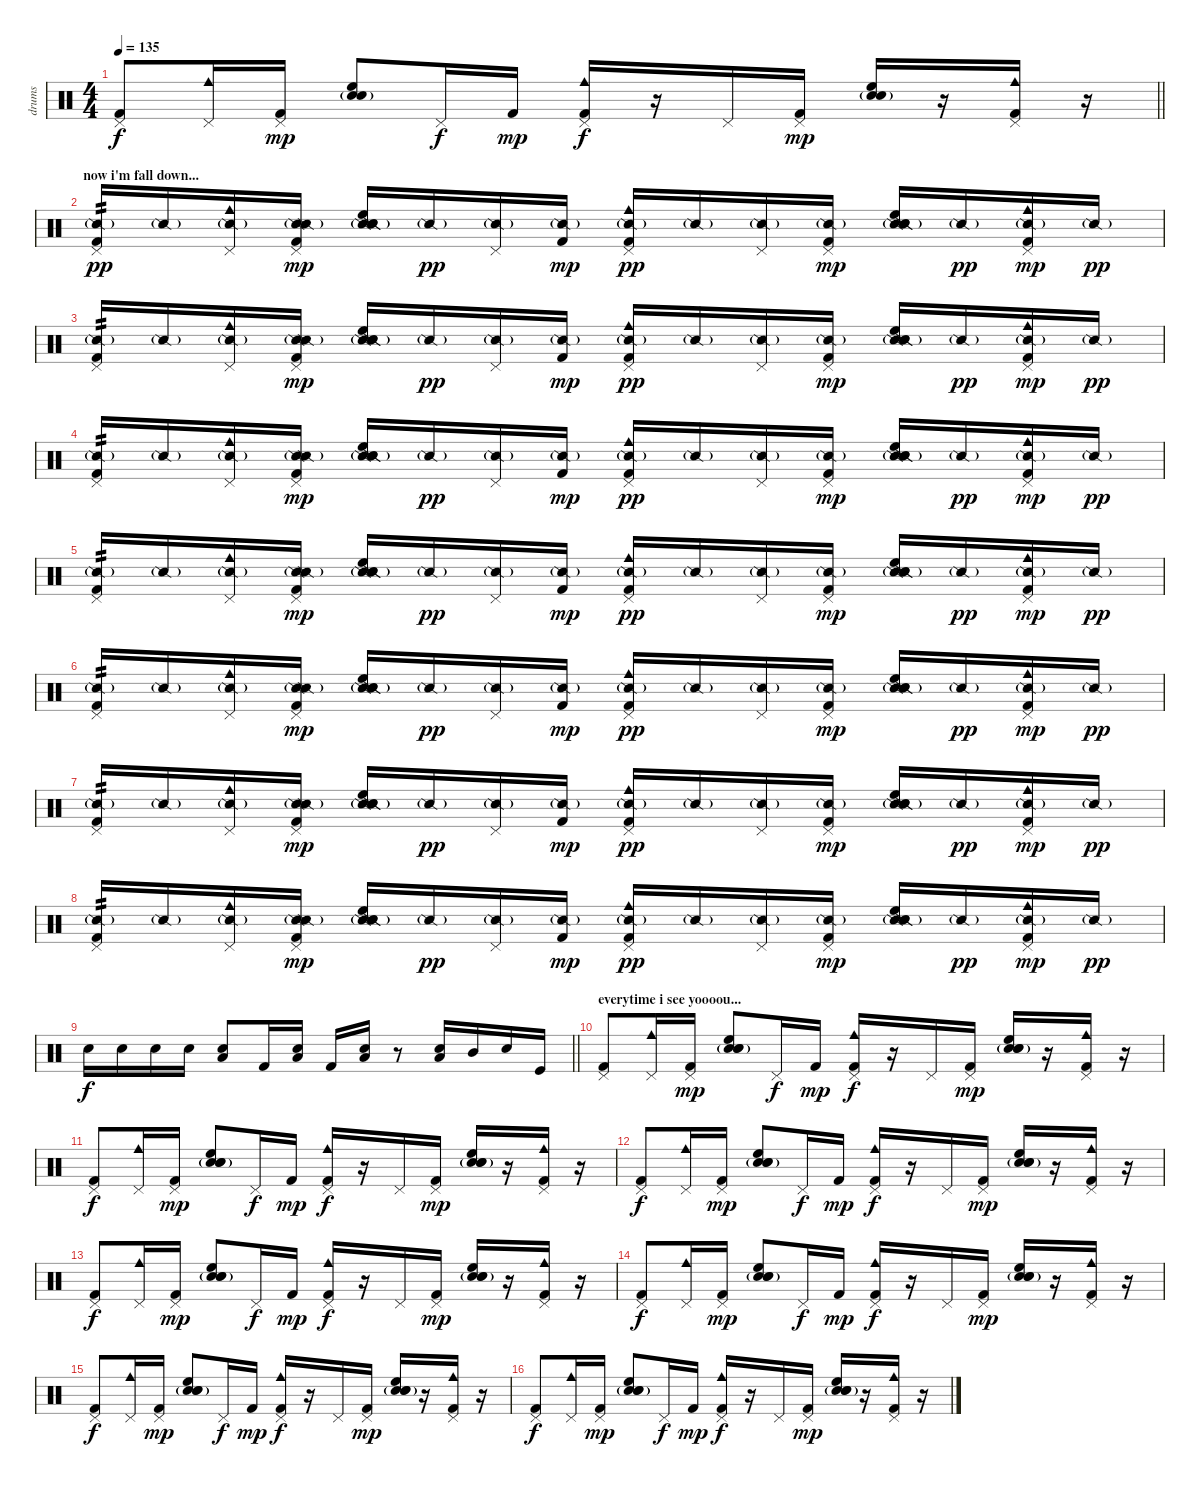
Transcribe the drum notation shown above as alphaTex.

\track ("drums" "drums") {instrument percussion}
\staff {score}
\articulation defaults
\ts (4 4)
\tempo 135
\clef neutral
\barLineRight lightlight
\ks c
("Pedal Hi-Hat (hit)" "Kick (hit) 2").8{dy f} ("Cowbell medium (hit)" "Pedal Hi-Hat (hit)").16 ("Pedal Hi-Hat (hit)" "Kick (hit) 2").16{dy mp} ("Electric Snare (hit)"{g} "Hand Clap (hit)"{g} "High Floor Tom (hit)").8 "Pedal Hi-Hat (hit)".16{dy f} "Kick (hit) 2".16{dy mp} ("Cowbell medium (hit)" "Pedal Hi-Hat (hit)" "Kick (hit) 2").16{dy f} r.16 "Pedal Hi-Hat (hit)".16 ("Pedal Hi-Hat (hit)" "Kick (hit) 2").16{dy mp} ("Electric Snare (hit)"{g} "Hand Clap (hit)"{g} "High Floor Tom (hit)").16 r.16 ("Cowbell medium (hit)" "Pedal Hi-Hat (hit)" "Kick (hit) 2").16 r.16 |
\section ("" "now i'm fall down...")
("Snare (side stick) 2"{g} "Pedal Hi-Hat (hit)" "Kick (hit) 2").16{tp 2 dy pp} "Snare (side stick) 2"{g}.16 ("Snare (side stick) 2"{g} "Cowbell medium (hit)" "Pedal Hi-Hat (hit)").16 ("Snare (side stick) 2"{g} "Snare (side stick) 2"{g} "Pedal Hi-Hat (hit)" "Kick (hit) 2").16{dy mp} ("Snare (side stick) 2" "Snare (side stick) 2" "Snare (side stick) 2" "Electric Snare (hit)"{g} "High Floor Tom (hit)").16 "Snare (side stick) 2"{g}.16{dy pp} ("Snare (side stick) 2"{g} "Pedal Hi-Hat (hit)").16 ("Snare (side stick) 2"{g} "Kick (hit) 2").16{dy mp} ("Snare (side stick) 2"{g} "Cowbell medium (hit)" "Pedal Hi-Hat (hit)" "Kick (hit) 2").16{dy pp} "Snare (side stick) 2"{g}.16 ("Snare (side stick) 2"{g} "Pedal Hi-Hat (hit)").16 ("Snare (side stick) 2"{g} "Pedal Hi-Hat (hit)" "Kick (hit) 2").16{dy mp} ("Snare (side stick) 2" "Snare (side stick) 2" "Snare (side stick) 2" "Electric Snare (hit)"{g} "High Floor Tom (hit)").16 "Snare (side stick) 2"{g}.16{dy pp} ("Snare (side stick) 2"{g} "Cowbell medium (hit)" "Pedal Hi-Hat (hit)" "Kick (hit) 2").16{dy mp} "Snare (side stick) 2"{g}.16{dy pp} |
("Snare (side stick) 2"{g} "Pedal Hi-Hat (hit)" "Kick (hit) 2").16{tp 2} "Snare (side stick) 2"{g}.16 ("Snare (side stick) 2"{g} "Cowbell medium (hit)" "Pedal Hi-Hat (hit)").16 ("Snare (side stick) 2"{g} "Snare (side stick) 2"{g} "Pedal Hi-Hat (hit)" "Kick (hit) 2").16{dy mp} ("Snare (side stick) 2" "Snare (side stick) 2" "Snare (side stick) 2" "Electric Snare (hit)"{g} "High Floor Tom (hit)").16 "Snare (side stick) 2"{g}.16{dy pp} ("Snare (side stick) 2"{g} "Pedal Hi-Hat (hit)").16 ("Snare (side stick) 2"{g} "Kick (hit) 2").16{dy mp} ("Snare (side stick) 2"{g} "Cowbell medium (hit)" "Pedal Hi-Hat (hit)" "Kick (hit) 2").16{dy pp} "Snare (side stick) 2"{g}.16 ("Snare (side stick) 2"{g} "Pedal Hi-Hat (hit)").16 ("Snare (side stick) 2"{g} "Pedal Hi-Hat (hit)" "Kick (hit) 2").16{dy mp} ("Snare (side stick) 2" "Snare (side stick) 2" "Snare (side stick) 2" "Electric Snare (hit)"{g} "High Floor Tom (hit)").16 "Snare (side stick) 2"{g}.16{dy pp} ("Snare (side stick) 2"{g} "Cowbell medium (hit)" "Pedal Hi-Hat (hit)" "Kick (hit) 2").16{dy mp} "Snare (side stick) 2"{g}.16{dy pp} |
("Snare (side stick) 2"{g} "Pedal Hi-Hat (hit)" "Kick (hit) 2").16{tp 2} "Snare (side stick) 2"{g}.16 ("Snare (side stick) 2"{g} "Cowbell medium (hit)" "Pedal Hi-Hat (hit)").16 ("Snare (side stick) 2"{g} "Snare (side stick) 2"{g} "Pedal Hi-Hat (hit)" "Kick (hit) 2").16{dy mp} ("Snare (side stick) 2" "Snare (side stick) 2" "Snare (side stick) 2" "Electric Snare (hit)"{g} "High Floor Tom (hit)").16 "Snare (side stick) 2"{g}.16{dy pp} ("Snare (side stick) 2"{g} "Pedal Hi-Hat (hit)").16 ("Snare (side stick) 2"{g} "Kick (hit) 2").16{dy mp} ("Snare (side stick) 2"{g} "Cowbell medium (hit)" "Pedal Hi-Hat (hit)" "Kick (hit) 2").16{dy pp} "Snare (side stick) 2"{g}.16 ("Snare (side stick) 2"{g} "Pedal Hi-Hat (hit)").16 ("Snare (side stick) 2"{g} "Pedal Hi-Hat (hit)" "Kick (hit) 2").16{dy mp} ("Snare (side stick) 2" "Snare (side stick) 2" "Snare (side stick) 2" "Electric Snare (hit)"{g} "High Floor Tom (hit)").16 "Snare (side stick) 2"{g}.16{dy pp} ("Snare (side stick) 2"{g} "Cowbell medium (hit)" "Pedal Hi-Hat (hit)" "Kick (hit) 2").16{dy mp} "Snare (side stick) 2"{g}.16{dy pp} |
("Snare (side stick) 2"{g} "Pedal Hi-Hat (hit)" "Kick (hit) 2").16{tp 2} "Snare (side stick) 2"{g}.16 ("Snare (side stick) 2"{g} "Cowbell medium (hit)" "Pedal Hi-Hat (hit)").16 ("Snare (side stick) 2"{g} "Snare (side stick) 2"{g} "Pedal Hi-Hat (hit)" "Kick (hit) 2").16{dy mp} ("Snare (side stick) 2" "Snare (side stick) 2" "Snare (side stick) 2" "Electric Snare (hit)"{g} "High Floor Tom (hit)").16 "Snare (side stick) 2"{g}.16{dy pp} ("Snare (side stick) 2"{g} "Pedal Hi-Hat (hit)").16 ("Snare (side stick) 2"{g} "Kick (hit) 2").16{dy mp} ("Snare (side stick) 2"{g} "Cowbell medium (hit)" "Pedal Hi-Hat (hit)" "Kick (hit) 2").16{dy pp} "Snare (side stick) 2"{g}.16 ("Snare (side stick) 2"{g} "Pedal Hi-Hat (hit)").16 ("Snare (side stick) 2"{g} "Pedal Hi-Hat (hit)" "Kick (hit) 2").16{dy mp} ("Snare (side stick) 2" "Snare (side stick) 2" "Snare (side stick) 2" "Electric Snare (hit)"{g} "High Floor Tom (hit)").16 "Snare (side stick) 2"{g}.16{dy pp} ("Snare (side stick) 2"{g} "Cowbell medium (hit)" "Pedal Hi-Hat (hit)" "Kick (hit) 2").16{dy mp} "Snare (side stick) 2"{g}.16{dy pp} |
("Snare (side stick) 2"{g} "Pedal Hi-Hat (hit)" "Kick (hit) 2").16{tp 2} "Snare (side stick) 2"{g}.16 ("Snare (side stick) 2"{g} "Cowbell medium (hit)" "Pedal Hi-Hat (hit)").16 ("Snare (side stick) 2"{g} "Snare (side stick) 2"{g} "Pedal Hi-Hat (hit)" "Kick (hit) 2").16{dy mp} ("Snare (side stick) 2" "Snare (side stick) 2" "Snare (side stick) 2" "Electric Snare (hit)"{g} "High Floor Tom (hit)").16 "Snare (side stick) 2"{g}.16{dy pp} ("Snare (side stick) 2"{g} "Pedal Hi-Hat (hit)").16 ("Snare (side stick) 2"{g} "Kick (hit) 2").16{dy mp} ("Snare (side stick) 2"{g} "Cowbell medium (hit)" "Pedal Hi-Hat (hit)" "Kick (hit) 2").16{dy pp} "Snare (side stick) 2"{g}.16 ("Snare (side stick) 2"{g} "Pedal Hi-Hat (hit)").16 ("Snare (side stick) 2"{g} "Pedal Hi-Hat (hit)" "Kick (hit) 2").16{dy mp} ("Snare (side stick) 2" "Snare (side stick) 2" "Snare (side stick) 2" "Electric Snare (hit)"{g} "High Floor Tom (hit)").16 "Snare (side stick) 2"{g}.16{dy pp} ("Snare (side stick) 2"{g} "Cowbell medium (hit)" "Pedal Hi-Hat (hit)" "Kick (hit) 2").16{dy mp} "Snare (side stick) 2"{g}.16{dy pp} |
("Snare (side stick) 2"{g} "Pedal Hi-Hat (hit)" "Kick (hit) 2").16{tp 2} "Snare (side stick) 2"{g}.16 ("Snare (side stick) 2"{g} "Cowbell medium (hit)" "Pedal Hi-Hat (hit)").16 ("Snare (side stick) 2"{g} "Snare (side stick) 2"{g} "Pedal Hi-Hat (hit)" "Kick (hit) 2").16{dy mp} ("Snare (side stick) 2" "Snare (side stick) 2" "Snare (side stick) 2" "Electric Snare (hit)"{g} "High Floor Tom (hit)").16 "Snare (side stick) 2"{g}.16{dy pp} ("Snare (side stick) 2"{g} "Pedal Hi-Hat (hit)").16 ("Snare (side stick) 2"{g} "Kick (hit) 2").16{dy mp} ("Snare (side stick) 2"{g} "Cowbell medium (hit)" "Pedal Hi-Hat (hit)" "Kick (hit) 2").16{dy pp} "Snare (side stick) 2"{g}.16 ("Snare (side stick) 2"{g} "Pedal Hi-Hat (hit)").16 ("Snare (side stick) 2"{g} "Pedal Hi-Hat (hit)" "Kick (hit) 2").16{dy mp} ("Snare (side stick) 2" "Snare (side stick) 2" "Snare (side stick) 2" "Electric Snare (hit)"{g} "High Floor Tom (hit)").16 "Snare (side stick) 2"{g}.16{dy pp} ("Snare (side stick) 2"{g} "Cowbell medium (hit)" "Pedal Hi-Hat (hit)" "Kick (hit) 2").16{dy mp} "Snare (side stick) 2"{g}.16{dy pp} |
("Snare (side stick) 2"{g} "Pedal Hi-Hat (hit)" "Kick (hit) 2").16{tp 2} "Snare (side stick) 2"{g}.16 ("Snare (side stick) 2"{g} "Cowbell medium (hit)" "Pedal Hi-Hat (hit)").16 ("Snare (side stick) 2"{g} "Snare (side stick) 2"{g} "Pedal Hi-Hat (hit)" "Kick (hit) 2").16{dy mp} ("Snare (side stick) 2" "Snare (side stick) 2" "Snare (side stick) 2" "Electric Snare (hit)"{g} "High Floor Tom (hit)").16 "Snare (side stick) 2"{g}.16{dy pp} ("Snare (side stick) 2"{g} "Pedal Hi-Hat (hit)").16 ("Snare (side stick) 2"{g} "Kick (hit) 2").16{dy mp} ("Snare (side stick) 2"{g} "Cowbell medium (hit)" "Pedal Hi-Hat (hit)" "Kick (hit) 2").16{dy pp} "Snare (side stick) 2"{g}.16 ("Snare (side stick) 2"{g} "Pedal Hi-Hat (hit)").16 ("Snare (side stick) 2"{g} "Pedal Hi-Hat (hit)" "Kick (hit) 2").16{dy mp} ("Snare (side stick) 2" "Snare (side stick) 2" "Snare (side stick) 2" "Electric Snare (hit)"{g} "High Floor Tom (hit)").16 "Snare (side stick) 2"{g}.16{dy pp} ("Snare (side stick) 2"{g} "Cowbell medium (hit)" "Pedal Hi-Hat (hit)" "Kick (hit) 2").16{dy mp} "Snare (side stick) 2"{g}.16{dy pp} |
\barLineRight lightlight "Snare (hit) 2".16{dy f} "Snare (hit) 2".16 "Snare (hit) 2".16 "Snare (hit) 2".16
("Snare (hit) 2" "Low Tom (hit)").8{bd 60} "Kick (hit) 2".16 ("Snare (hit) 2" "Low Tom (hit)").16{bd 60} "Kick (hit) 2".16 ("Snare (hit) 2" "Low Tom (hit)").16{bd 60} r.8 ("Low Tom (hit)" "Snare (hit) 2").16{bu 60} "Mid Tom (hit)".16 "Snare (hit) 2".16 "Kick (hit)".16 |
\section ("" "everytime i see yoooou...")
("Pedal Hi-Hat (hit)" "Kick (hit) 2").8 ("Cowbell medium (hit)" "Pedal Hi-Hat (hit)").16 ("Pedal Hi-Hat (hit)" "Kick (hit) 2").16{dy mp} ("Snare (hit) 2"{g} "Hand Clap (hit)"{g} "High Floor Tom (hit)" "Snare (hit) 2").8 "Pedal Hi-Hat (hit)".16{dy f} "Kick (hit) 2".16{dy mp} ("Cowbell medium (hit)" "Pedal Hi-Hat (hit)" "Kick (hit) 2").16{dy f} r.16 "Pedal Hi-Hat (hit)".16 ("Pedal Hi-Hat (hit)" "Kick (hit) 2").16{dy mp} ("Snare (hit) 2"{g} "Hand Clap (hit)"{g} "High Floor Tom (hit)" "Snare (hit) 2").16 r.16 ("Cowbell medium (hit)" "Pedal Hi-Hat (hit)" "Kick (hit) 2").16 r.16 |
("Pedal Hi-Hat (hit)" "Kick (hit) 2").8{dy f} ("Cowbell medium (hit)" "Pedal Hi-Hat (hit)").16 ("Pedal Hi-Hat (hit)" "Kick (hit) 2").16{dy mp} ("Snare (hit) 2"{g} "Hand Clap (hit)"{g} "High Floor Tom (hit)" "Snare (hit) 2").8 "Pedal Hi-Hat (hit)".16{dy f} "Kick (hit) 2".16{dy mp} ("Cowbell medium (hit)" "Pedal Hi-Hat (hit)" "Kick (hit) 2").16{dy f} r.16 "Pedal Hi-Hat (hit)".16 ("Pedal Hi-Hat (hit)" "Kick (hit) 2").16{dy mp} ("Snare (hit) 2"{g} "Hand Clap (hit)"{g} "High Floor Tom (hit)" "Snare (hit) 2").16 r.16 ("Cowbell medium (hit)" "Pedal Hi-Hat (hit)" "Kick (hit) 2").16 r.16 |
("Pedal Hi-Hat (hit)" "Kick (hit) 2").8{dy f} ("Cowbell medium (hit)" "Pedal Hi-Hat (hit)").16 ("Pedal Hi-Hat (hit)" "Kick (hit) 2").16{dy mp} ("Snare (hit) 2"{g} "Hand Clap (hit)"{g} "High Floor Tom (hit)" "Snare (hit) 2").8 "Pedal Hi-Hat (hit)".16{dy f} "Kick (hit) 2".16{dy mp} ("Cowbell medium (hit)" "Pedal Hi-Hat (hit)" "Kick (hit) 2").16{dy f} r.16 "Pedal Hi-Hat (hit)".16 ("Pedal Hi-Hat (hit)" "Kick (hit) 2").16{dy mp} ("Snare (hit) 2"{g} "Hand Clap (hit)"{g} "High Floor Tom (hit)" "Snare (hit) 2").16 r.16 ("Cowbell medium (hit)" "Pedal Hi-Hat (hit)" "Kick (hit) 2").16 r.16 |
("Pedal Hi-Hat (hit)" "Kick (hit) 2").8{dy f} ("Cowbell medium (hit)" "Pedal Hi-Hat (hit)").16 ("Pedal Hi-Hat (hit)" "Kick (hit) 2").16{dy mp} ("Snare (hit) 2"{g} "Hand Clap (hit)"{g} "High Floor Tom (hit)" "Snare (hit) 2").8 "Pedal Hi-Hat (hit)".16{dy f} "Kick (hit) 2".16{dy mp} ("Cowbell medium (hit)" "Pedal Hi-Hat (hit)" "Kick (hit) 2").16{dy f} r.16 "Pedal Hi-Hat (hit)".16 ("Pedal Hi-Hat (hit)" "Kick (hit) 2").16{dy mp} ("Snare (hit) 2"{g} "Hand Clap (hit)"{g} "High Floor Tom (hit)" "Snare (hit) 2").16 r.16 ("Cowbell medium (hit)" "Pedal Hi-Hat (hit)" "Kick (hit) 2").16 r.16 |
("Pedal Hi-Hat (hit)" "Kick (hit) 2").8{dy f} ("Cowbell medium (hit)" "Pedal Hi-Hat (hit)").16 ("Pedal Hi-Hat (hit)" "Kick (hit) 2").16{dy mp} ("Snare (hit) 2"{g} "Hand Clap (hit)"{g} "High Floor Tom (hit)" "Snare (hit) 2").8 "Pedal Hi-Hat (hit)".16{dy f} "Kick (hit) 2".16{dy mp} ("Cowbell medium (hit)" "Pedal Hi-Hat (hit)" "Kick (hit) 2").16{dy f} r.16 "Pedal Hi-Hat (hit)".16 ("Pedal Hi-Hat (hit)" "Kick (hit) 2").16{dy mp} ("Snare (hit) 2"{g} "Hand Clap (hit)"{g} "High Floor Tom (hit)" "Snare (hit) 2").16 r.16 ("Cowbell medium (hit)" "Pedal Hi-Hat (hit)" "Kick (hit) 2").16 r.16 |
("Pedal Hi-Hat (hit)" "Kick (hit) 2").8{dy f} ("Cowbell medium (hit)" "Pedal Hi-Hat (hit)").16 ("Pedal Hi-Hat (hit)" "Kick (hit) 2").16{dy mp} ("Snare (hit) 2"{g} "Hand Clap (hit)"{g} "High Floor Tom (hit)" "Snare (hit) 2").8 "Pedal Hi-Hat (hit)".16{dy f} "Kick (hit) 2".16{dy mp} ("Cowbell medium (hit)" "Pedal Hi-Hat (hit)" "Kick (hit) 2").16{dy f} r.16 "Pedal Hi-Hat (hit)".16 ("Pedal Hi-Hat (hit)" "Kick (hit) 2").16{dy mp} ("Snare (hit) 2"{g} "Hand Clap (hit)"{g} "High Floor Tom (hit)" "Snare (hit) 2").16 r.16 ("Cowbell medium (hit)" "Pedal Hi-Hat (hit)" "Kick (hit) 2").16 r.16 |
("Pedal Hi-Hat (hit)" "Kick (hit) 2").8{dy f} ("Cowbell medium (hit)" "Pedal Hi-Hat (hit)").16 ("Pedal Hi-Hat (hit)" "Kick (hit) 2").16{dy mp} ("Snare (hit) 2"{g} "Hand Clap (hit)"{g} "High Floor Tom (hit)" "Snare (hit) 2").8 "Pedal Hi-Hat (hit)".16{dy f} "Kick (hit) 2".16{dy mp} ("Cowbell medium (hit)" "Pedal Hi-Hat (hit)" "Kick (hit) 2").16{dy f} r.16 "Pedal Hi-Hat (hit)".16 ("Pedal Hi-Hat (hit)" "Kick (hit) 2").16{dy mp} ("Snare (hit) 2"{g} "Hand Clap (hit)"{g} "High Floor Tom (hit)" "Snare (hit) 2").16 r.16 ("Cowbell medium (hit)" "Pedal Hi-Hat (hit)" "Kick (hit) 2").16 r.16
